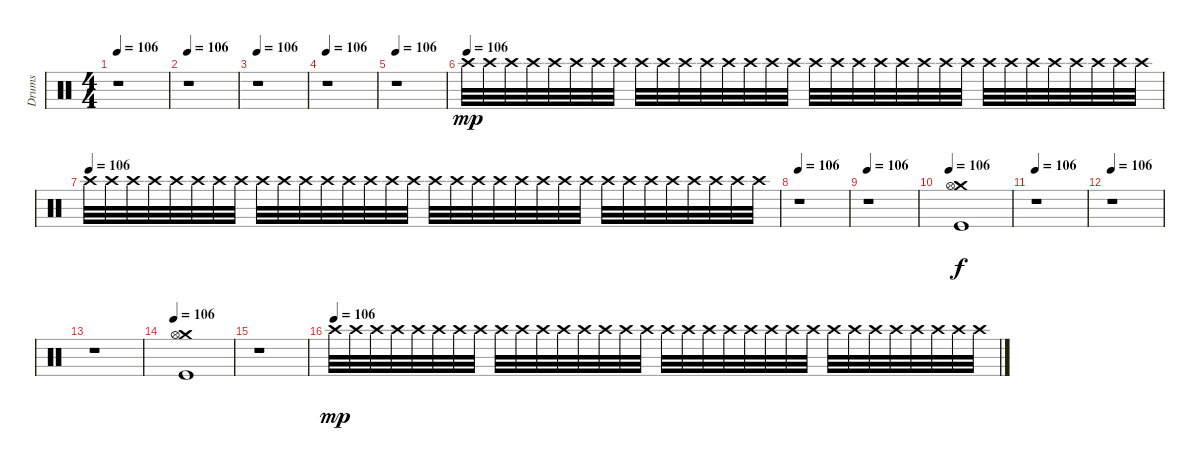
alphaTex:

\track ("Drums" "Drums") {instrument percussion}
\staff {score}
\articulation defaults
\ts (4 4)
\tempo 106
\clef neutral
\ks c
r.1{dy f} |
\tempo 106
r.1 |
\tempo 106
r.1 |
\tempo 106
r.1 |
\tempo 106
r.1{volume 0} |
\tempo (106)
"Crash high (hit)".32{dy mp volume 13} "Crash high (hit)".32 "Crash high (hit)".32 "Crash high (hit)".32 "Crash high (hit)".32 "Crash high (hit)".32 "Crash high (hit)".32 "Crash high (hit)".32 "Crash high (hit)".32 "Crash high (hit)".32 "Crash high (hit)".32 "Crash high (hit)".32 "Crash high (hit)".32 "Crash high (hit)".32 "Crash high (hit)".32 "Crash high (hit)".32 "Crash high (hit)".32 "Crash high (hit)".32 "Crash high (hit)".32 "Crash high (hit)".32 "Crash high (hit)".32 "Crash high (hit)".32 "Crash high (hit)".32 "Crash high (hit)".32 "Crash high (hit)".32 "Crash high (hit)".32 "Crash high (hit)".32 "Crash high (hit)".32 "Crash high (hit)".32 "Crash high (hit)".32 "Crash high (hit)".32 "Crash high (hit)".32 |
\tempo (106)
"Crash high (hit)".32 "Crash high (hit)".32 "Crash high (hit)".32 "Crash high (hit)".32 "Crash high (hit)".32 "Crash high (hit)".32 "Crash high (hit)".32 "Crash high (hit)".32 "Crash high (hit)".32 "Crash high (hit)".32 "Crash high (hit)".32 "Crash high (hit)".32 "Crash high (hit)".32 "Crash high (hit)".32 "Crash high (hit)".32 "Crash high (hit)".32 "Crash high (hit)".32 "Crash high (hit)".32 "Crash high (hit)".32 "Crash high (hit)".32 "Crash high (hit)".32 "Crash high (hit)".32 "Crash high (hit)".32 "Crash high (hit)".32 "Crash high (hit)".32 "Crash high (hit)".32 "Crash high (hit)".32 "Crash high (hit)".32 "Crash high (hit)".32 "Crash high (hit)".32 "Crash high (hit)".32 "Crash high (hit)".32 |
\tempo 106
r.1 |
\tempo 106
r.1 |
\tempo 106
("Crash medium (hit)" "Hi-Hat (open)" "Kick (hit)").1{dy f} |
\tempo 106
r.1 |
\tempo 106
r.1 |
r.1 |
\tempo 106
("Crash medium (hit)" "Hi-Hat (open)" "Kick (hit)").1 |
r.1{volume 0} |
\tempo (106)
"Crash high (hit)".32{dy mp volume 13} "Crash high (hit)".32 "Crash high (hit)".32 "Crash high (hit)".32 "Crash high (hit)".32 "Crash high (hit)".32 "Crash high (hit)".32 "Crash high (hit)".32 "Crash high (hit)".32 "Crash high (hit)".32 "Crash high (hit)".32 "Crash high (hit)".32 "Crash high (hit)".32 "Crash high (hit)".32 "Crash high (hit)".32 "Crash high (hit)".32 "Crash high (hit)".32 "Crash high (hit)".32 "Crash high (hit)".32 "Crash high (hit)".32 "Crash high (hit)".32 "Crash high (hit)".32 "Crash high (hit)".32 "Crash high (hit)".32 "Crash high (hit)".32 "Crash high (hit)".32 "Crash high (hit)".32 "Crash high (hit)".32 "Crash high (hit)".32 "Crash high (hit)".32 "Crash high (hit)".32 "Crash high (hit)".32
